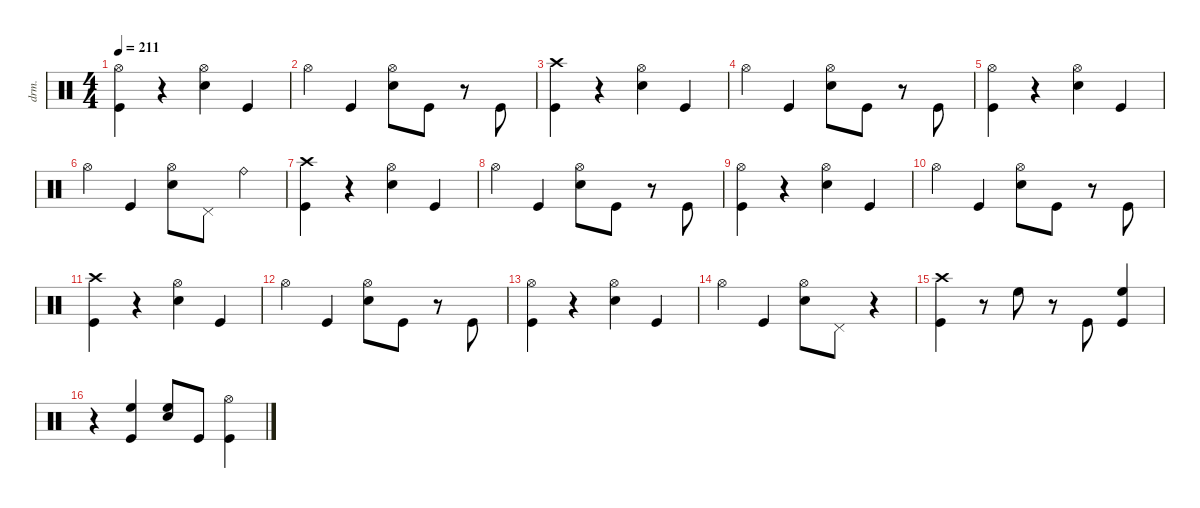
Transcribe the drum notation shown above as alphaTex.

\defaultSystemsLayout 4
\hideDynamics
\bracketExtendMode nobrackets
\otherSystemsTrackNameOrientation horizontal
\track ("Drums" "drm.") {instrument percussion}
\staff {score}
\articulation defaults
\ts (4 4)
\tempo 211
\clef neutral
\ks c
("Kick (hit)" "Hi-Hat (open)"{acc #}).4{dy ff beam Down} r.4{beam Down} ("Snare (hit) 2" "Hi-Hat (open)"{acc #}).4{beam Down} "Kick (hit)".4{beam Up} |
"Hi-Hat (open)"{acc #}.4{beam Down} "Kick (hit)".4{beam Up} ("Snare (hit) 2" "Hi-Hat (open)"{acc #}).8{beam Down} "Kick (hit)".8{beam Down} r.8{beam Down} "Kick (hit)".8{dy mf beam Up} |
("Kick (hit)" "Crash high (hit)"{acc #}).4{dy ff beam Down} r.4{beam Down} ("Snare (hit) 2" "Hi-Hat (open)"{acc #}).4{beam Down} "Kick (hit)".4{beam Up} |
"Hi-Hat (open)"{acc #}.4{beam Down} "Kick (hit)".4{beam Up} ("Snare (hit) 2" "Hi-Hat (open)"{acc #}).8{beam Down} "Kick (hit)".8{beam Down} r.8{beam Down} "Kick (hit)".8{dy mf beam Up} |
("Kick (hit)" "Hi-Hat (open)"{acc #}).4{dy ff beam Down} r.4{beam Down} ("Snare (hit) 2" "Hi-Hat (open)"{acc #}).4{beam Down} "Kick (hit)".4{beam Up} |
"Hi-Hat (open)"{acc #}.4{beam Down} "Kick (hit)".4{dy f beam Up} ("Snare (hit) 2" "Hi-Hat (open)"{acc #}).8{dy ff beam Down} "Pedal Hi-Hat (hit)"{acc #}.8{beam Down} "Ride (bell)".4{dy fff beam Down} |
("Kick (hit)" "Crash high (hit)"{acc #}).4{dy ff beam Down} r.4{beam Down} ("Snare (hit) 2" "Hi-Hat (open)"{acc #}).4{beam Down} "Kick (hit)".4{beam Up} |
"Hi-Hat (open)"{acc #}.4{beam Down} "Kick (hit)".4{beam Up} ("Snare (hit) 2" "Hi-Hat (open)"{acc #}).8{beam Down} "Kick (hit)".8{beam Down} r.8{beam Down} "Kick (hit)".8{dy mf beam Up} |
("Kick (hit)" "Hi-Hat (open)"{acc #}).4{dy ff beam Down} r.4{beam Down} ("Snare (hit) 2" "Hi-Hat (open)"{acc #}).4{beam Down} "Kick (hit)".4{beam Up} |
"Hi-Hat (open)"{acc #}.4{beam Down} "Kick (hit)".4{beam Up} ("Snare (hit) 2" "Hi-Hat (open)"{acc #}).8{beam Down} "Kick (hit)".8{beam Down} r.8{beam Down} "Kick (hit)".8{dy mf beam Up} |
("Kick (hit)" "Crash high (hit)"{acc #}).4{dy ff beam Down} r.4{beam Down} ("Snare (hit) 2" "Hi-Hat (open)"{acc #}).4{beam Down} "Kick (hit)".4{beam Up} |
"Hi-Hat (open)"{acc #}.4{beam Down} "Kick (hit)".4{beam Up} ("Snare (hit) 2" "Hi-Hat (open)"{acc #}).8{beam Down} "Kick (hit)".8{beam Down} r.8{beam Down} "Kick (hit)".8{dy mf beam Up} |
("Kick (hit)" "Hi-Hat (open)"{acc #}).4{dy ff beam Down} r.4{beam Down} ("Snare (hit) 2" "Hi-Hat (open)"{acc #}).4{beam Down} "Kick (hit)".4{beam Up} |
"Hi-Hat (open)"{acc #}.4{beam Down} "Kick (hit)".4{beam Up} ("Snare (hit) 2" "Hi-Hat (open)"{acc #}).8{beam Down} "Pedal Hi-Hat (hit)"{acc #}.8{beam Down} r.4{beam Down} |
("Kick (hit)" "Crash high (hit)"{acc #}).4{beam Down} r.8{beam Down} "High Floor Tom (hit)".8{dy f beam Down} r.8{beam Down} "Kick (hit)".8{dy mf beam Up} ("Kick (hit)" "High Floor Tom (hit)").4{dy ff beam Up} |
r.4{beam Down} ("Kick (hit)" "High Floor Tom (hit)").4{beam Up} ("Snare (hit) 2" "High Floor Tom (hit)").8{beam Up} "Kick (hit)".8{dy mf beam Up} ("Kick (hit)" "Hi-Hat (open)"{acc #}).4{dy ff beam Down}
